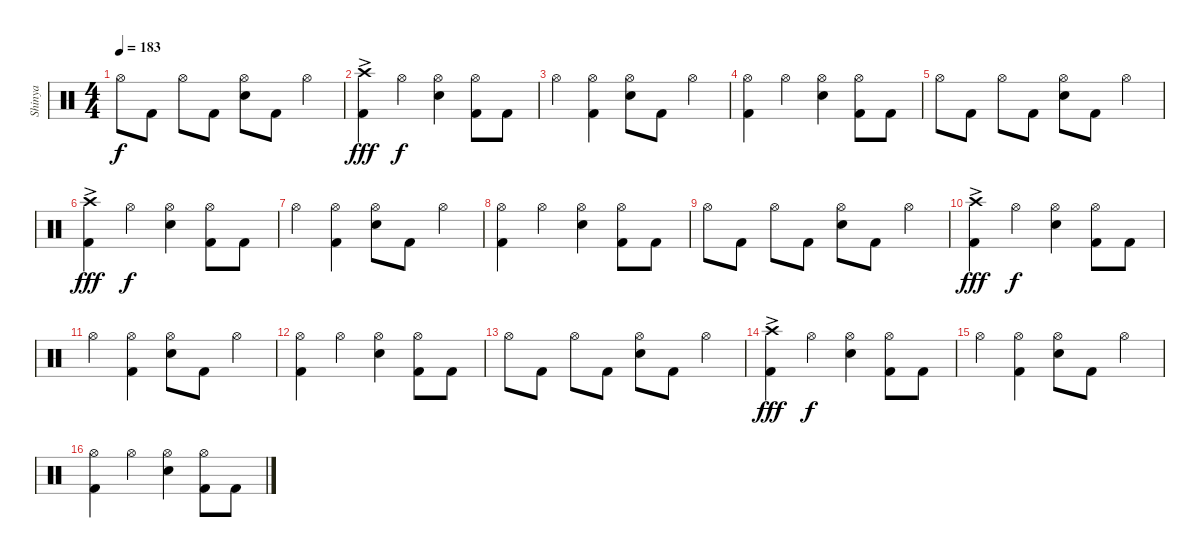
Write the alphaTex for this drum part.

\track ("Shinya" "Shinya") {instrument percussion}
\staff {score}
\articulation defaults
\ts (4 4)
\tempo 183
\clef neutral
\ks c "Hi-Hat (open)".8{dy f} "Kick (hit) 2".8 "Hi-Hat (open)".8 "Kick (hit) 2".8
("Hi-Hat (open)" "Snare (hit) 2").8 "Kick (hit) 2".8 "Hi-Hat (open)".4 |
("Crash high (hit)"{ac} "Kick (hit) 2").4{dy fff} "Hi-Hat (open)".4{dy f} ("Hi-Hat (open)" "Snare (hit) 2").4 ("Hi-Hat (open)" "Kick (hit) 2").8 "Kick (hit) 2".8 |
"Hi-Hat (open)".4 ("Hi-Hat (open)" "Kick (hit) 2").4 ("Hi-Hat (open)" "Snare (hit) 2").8 "Kick (hit) 2".8 "Hi-Hat (open)".4 |
("Hi-Hat (open)" "Kick (hit) 2").4 "Hi-Hat (open)".4 ("Hi-Hat (open)" "Snare (hit) 2").4 ("Hi-Hat (open)" "Kick (hit) 2").8 "Kick (hit) 2".8 |
"Hi-Hat (open)".8 "Kick (hit) 2".8 "Hi-Hat (open)".8 "Kick (hit) 2".8 ("Hi-Hat (open)" "Snare (hit) 2").8 "Kick (hit) 2".8 "Hi-Hat (open)".4 |
("Crash high (hit)"{ac} "Kick (hit) 2").4{dy fff} "Hi-Hat (open)".4{dy f} ("Hi-Hat (open)" "Snare (hit) 2").4 ("Hi-Hat (open)" "Kick (hit) 2").8 "Kick (hit) 2".8 |
"Hi-Hat (open)".4 ("Hi-Hat (open)" "Kick (hit) 2").4 ("Hi-Hat (open)" "Snare (hit) 2").8 "Kick (hit) 2".8 "Hi-Hat (open)".4 |
("Hi-Hat (open)" "Kick (hit) 2").4 "Hi-Hat (open)".4 ("Hi-Hat (open)" "Snare (hit) 2").4 ("Hi-Hat (open)" "Kick (hit) 2").8 "Kick (hit) 2".8 |
"Hi-Hat (open)".8 "Kick (hit) 2".8 "Hi-Hat (open)".8 "Kick (hit) 2".8 ("Hi-Hat (open)" "Snare (hit) 2").8 "Kick (hit) 2".8 "Hi-Hat (open)".4 |
("Crash high (hit)"{ac} "Kick (hit) 2").4{dy fff} "Hi-Hat (open)".4{dy f} ("Hi-Hat (open)" "Snare (hit) 2").4 ("Hi-Hat (open)" "Kick (hit) 2").8 "Kick (hit) 2".8 |
"Hi-Hat (open)".4 ("Hi-Hat (open)" "Kick (hit) 2").4 ("Hi-Hat (open)" "Snare (hit) 2").8 "Kick (hit) 2".8 "Hi-Hat (open)".4 |
("Hi-Hat (open)" "Kick (hit) 2").4 "Hi-Hat (open)".4 ("Hi-Hat (open)" "Snare (hit) 2").4 ("Hi-Hat (open)" "Kick (hit) 2").8 "Kick (hit) 2".8 |
"Hi-Hat (open)".8 "Kick (hit) 2".8 "Hi-Hat (open)".8 "Kick (hit) 2".8 ("Hi-Hat (open)" "Snare (hit) 2").8 "Kick (hit) 2".8 "Hi-Hat (open)".4 |
("Crash high (hit)"{ac} "Kick (hit) 2").4{dy fff} "Hi-Hat (open)".4{dy f} ("Hi-Hat (open)" "Snare (hit) 2").4 ("Hi-Hat (open)" "Kick (hit) 2").8 "Kick (hit) 2".8 |
"Hi-Hat (open)".4 ("Hi-Hat (open)" "Kick (hit) 2").4 ("Hi-Hat (open)" "Snare (hit) 2").8 "Kick (hit) 2".8 "Hi-Hat (open)".4 |
("Hi-Hat (open)" "Kick (hit) 2").4 "Hi-Hat (open)".4 ("Hi-Hat (open)" "Snare (hit) 2").4 ("Hi-Hat (open)" "Kick (hit) 2").8 "Kick (hit) 2".8
